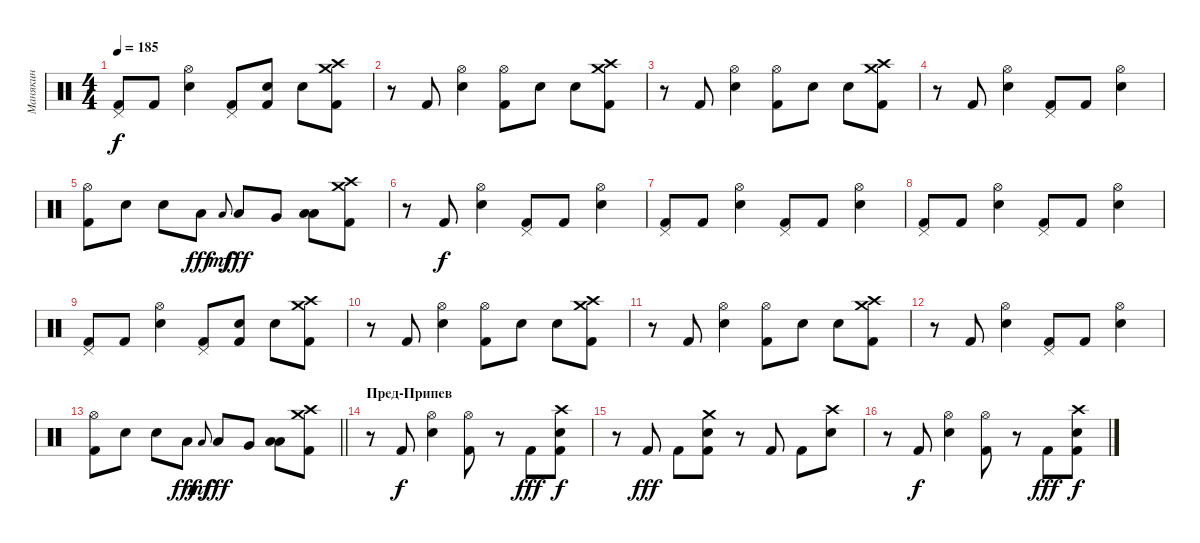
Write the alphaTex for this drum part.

\track ("Манякин" "Манякин") {instrument percussion}
\staff {score}
\articulation defaults
\ts (4 4)
\tempo 185
\clef neutral
\ks c
("Pedal Hi-Hat (hit)" "Kick (hit) 2").8{dy f} "Kick (hit) 2".8 ("Hi-Hat (open)" "Electric Snare (hit)").4 ("Pedal Hi-Hat (hit)" "Kick (hit) 2").8 ("Electric Snare (hit)" "Kick (hit) 2").8 "Electric Snare (hit)".8 ("Crash high (hit)" "Crash medium (hit)" "Kick (hit) 2").8 |
r.8 "Kick (hit) 2".8 ("Hi-Hat (open)" "Electric Snare (hit)").4 ("Hi-Hat (open)" "Kick (hit) 2").8 "Electric Snare (hit)".8 "Electric Snare (hit)".8 ("Crash high (hit)" "Crash medium (hit)" "Kick (hit) 2").8 |
r.8 "Kick (hit) 2".8 ("Hi-Hat (open)" "Electric Snare (hit)").4 ("Hi-Hat (open)" "Kick (hit) 2").8 "Electric Snare (hit)".8 "Electric Snare (hit)".8 ("Crash high (hit)" "Crash medium (hit)" "Kick (hit) 2").8 |
r.8 "Kick (hit) 2".8 ("Hi-Hat (open)" "Electric Snare (hit)").4 ("Pedal Hi-Hat (hit)" "Kick (hit) 2").8 "Kick (hit) 2".8 ("Hi-Hat (open)" "Electric Snare (hit)").4 |
("Hi-Hat (open)" "Kick (hit) 2").8 "Electric Snare (hit)".8 "Electric Snare (hit)".8 "Low Tom (hit)".8{dy fff} "Low Tom (hit)".8{gr onbeat dy mf} "Low Tom (hit)".8{dy fff} "Very Low Tom (hit)".8 ("Low Floor Tom (hit)" "Low Floor Tom (hit)").8 ("Crash high (hit)" "Crash medium (hit)" "Kick (hit) 2").8 |
r.8 "Kick (hit) 2".8{dy f} ("Hi-Hat (open)" "Electric Snare (hit)").4 ("Pedal Hi-Hat (hit)" "Kick (hit) 2").8 "Kick (hit) 2".8 ("Hi-Hat (open)" "Electric Snare (hit)").4 |
("Pedal Hi-Hat (hit)" "Kick (hit) 2").8 "Kick (hit) 2".8 ("Hi-Hat (open)" "Electric Snare (hit)").4 ("Pedal Hi-Hat (hit)" "Kick (hit) 2").8 "Kick (hit) 2".8 ("Hi-Hat (open)" "Electric Snare (hit)").4 |
("Pedal Hi-Hat (hit)" "Kick (hit) 2").8 "Kick (hit) 2".8 ("Hi-Hat (open)" "Electric Snare (hit)").4 ("Pedal Hi-Hat (hit)" "Kick (hit) 2").8 "Kick (hit) 2".8 ("Hi-Hat (open)" "Electric Snare (hit)").4 |
("Pedal Hi-Hat (hit)" "Kick (hit) 2").8 "Kick (hit) 2".8 ("Hi-Hat (open)" "Electric Snare (hit)").4 ("Pedal Hi-Hat (hit)" "Kick (hit) 2").8 ("Electric Snare (hit)" "Kick (hit) 2").8 "Electric Snare (hit)".8 ("Crash high (hit)" "Crash medium (hit)" "Kick (hit) 2").8 |
r.8 "Kick (hit) 2".8 ("Hi-Hat (open)" "Electric Snare (hit)").4 ("Hi-Hat (open)" "Kick (hit) 2").8 "Electric Snare (hit)".8 "Electric Snare (hit)".8 ("Crash high (hit)" "Crash medium (hit)" "Kick (hit) 2").8 |
r.8 "Kick (hit) 2".8 ("Hi-Hat (open)" "Electric Snare (hit)").4 ("Hi-Hat (open)" "Kick (hit) 2").8 "Electric Snare (hit)".8 "Electric Snare (hit)".8 ("Crash high (hit)" "Crash medium (hit)" "Kick (hit) 2").8 |
r.8 "Kick (hit) 2".8 ("Hi-Hat (open)" "Electric Snare (hit)").4 ("Pedal Hi-Hat (hit)" "Kick (hit) 2").8 "Kick (hit) 2".8 ("Hi-Hat (open)" "Electric Snare (hit)").4 |
\barLineRight lightlight
("Hi-Hat (open)" "Kick (hit) 2").8 "Electric Snare (hit)".8 "Electric Snare (hit)".8 "Low Tom (hit)".8{dy fff} "Low Tom (hit)".8{gr onbeat dy mf} "Low Tom (hit)".8{dy fff} "Very Low Tom (hit)".8 ("Low Floor Tom (hit)" "Low Floor Tom (hit)").8 ("Crash high (hit)" "Crash medium (hit)" "Kick (hit) 2").8 |
\section ("" "Пред-Припев")
r.8 "Kick (hit) 2".8{dy f} ("Hi-Hat (open)" "Electric Snare (hit)").4 ("Hi-Hat (open)" "Kick (hit) 2").8 r.8 "Kick (hit) 2".8{dy fff} ("Crash high (hit)" "Electric Snare (hit)" "Kick (hit) 2").8{dy f} |
r.8 "Kick (hit) 2".8{dy fff} "Kick (hit) 2".8 ("Crash medium (hit)" "Electric Snare (hit)" "Kick (hit) 2").8 r.8 "Kick (hit) 2".8 "Kick (hit) 2".8 ("Crash high (hit)" "Electric Snare (hit)").8 |
r.8 "Kick (hit) 2".8{dy f} ("Hi-Hat (open)" "Electric Snare (hit)").4 ("Hi-Hat (open)" "Kick (hit) 2").8 r.8 "Kick (hit) 2".8{dy fff} ("Crash high (hit)" "Electric Snare (hit)" "Kick (hit) 2").8{dy f}
